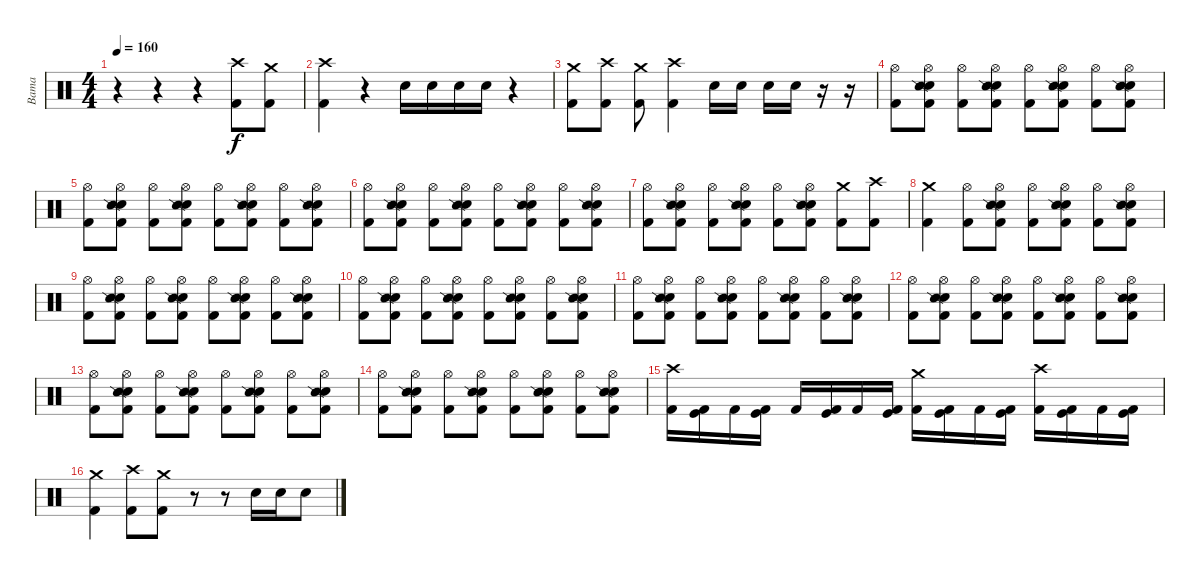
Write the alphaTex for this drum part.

\track ("Bama" "Bama") {instrument percussion}
\staff {score}
\articulation defaults
\ts (4 4)
\tempo 160
\clef neutral
\ks c
r.4{dy f} r.4 r.4 ("Crash high (hit)" "Kick (hit) 2").8 ("Crash medium (hit)" "Kick (hit) 2").8 |
("Crash high (hit)" "Kick (hit) 2").4 r.4 "Electric Snare (hit)".16 "Electric Snare (hit)".16 "Electric Snare (hit)".16 "Electric Snare (hit)".16 r.4 |
("Crash medium (hit)" "Kick (hit) 2").8 ("Crash high (hit)" "Kick (hit) 2").8 ("Crash medium (hit)" "Kick (hit) 2").8 ("Crash high (hit)" "Kick (hit) 2").4 "Electric Snare (hit)".16 "Electric Snare (hit)".16 "Electric Snare (hit)".16 "Electric Snare (hit)".16 r.16 r.16 |
("Hi-Hat (open)" "Kick (hit) 2").8 ("Hi-Hat (open)" "Electric Snare (hit)" "Snare (side stick) 2" "Kick (hit) 2").8 ("Hi-Hat (open)" "Kick (hit) 2").8 ("Hi-Hat (open)" "Electric Snare (hit)" "Snare (side stick) 2" "Kick (hit) 2").8 ("Hi-Hat (open)" "Kick (hit) 2").8 ("Hi-Hat (open)" "Electric Snare (hit)" "Snare (side stick) 2" "Kick (hit) 2").8 ("Hi-Hat (open)" "Kick (hit) 2").8 ("Hi-Hat (open)" "Electric Snare (hit)" "Snare (side stick) 2" "Kick (hit) 2").8 |
("Hi-Hat (open)" "Kick (hit) 2").8 ("Hi-Hat (open)" "Electric Snare (hit)" "Snare (side stick) 2" "Kick (hit) 2").8 ("Hi-Hat (open)" "Kick (hit) 2").8 ("Hi-Hat (open)" "Electric Snare (hit)" "Snare (side stick) 2" "Kick (hit) 2").8 ("Hi-Hat (open)" "Kick (hit) 2").8 ("Hi-Hat (open)" "Electric Snare (hit)" "Snare (side stick) 2" "Kick (hit) 2").8 ("Hi-Hat (open)" "Kick (hit) 2").8 ("Hi-Hat (open)" "Electric Snare (hit)" "Snare (side stick) 2" "Kick (hit) 2").8 |
("Hi-Hat (open)" "Kick (hit) 2").8 ("Hi-Hat (open)" "Electric Snare (hit)" "Snare (side stick) 2" "Kick (hit) 2").8 ("Hi-Hat (open)" "Kick (hit) 2").8 ("Hi-Hat (open)" "Electric Snare (hit)" "Snare (side stick) 2" "Kick (hit) 2").8 ("Hi-Hat (open)" "Kick (hit) 2").8 ("Hi-Hat (open)" "Electric Snare (hit)" "Snare (side stick) 2" "Kick (hit) 2").8 ("Hi-Hat (open)" "Kick (hit) 2").8 ("Hi-Hat (open)" "Electric Snare (hit)" "Snare (side stick) 2" "Kick (hit) 2").8 |
("Hi-Hat (open)" "Kick (hit) 2").8 ("Hi-Hat (open)" "Electric Snare (hit)" "Snare (side stick) 2" "Kick (hit) 2").8 ("Hi-Hat (open)" "Kick (hit) 2").8 ("Hi-Hat (open)" "Electric Snare (hit)" "Snare (side stick) 2" "Kick (hit) 2").8 ("Hi-Hat (open)" "Kick (hit) 2").8 ("Hi-Hat (open)" "Electric Snare (hit)" "Snare (side stick) 2" "Kick (hit) 2").8 ("Crash medium (hit)" "Kick (hit) 2").8 ("Crash high (hit)" "Kick (hit) 2").8 |
("Crash medium (hit)" "Kick (hit) 2").4 ("Hi-Hat (open)" "Kick (hit) 2").8 ("Hi-Hat (open)" "Electric Snare (hit)" "Snare (side stick) 2" "Kick (hit) 2").8 ("Hi-Hat (open)" "Kick (hit) 2").8 ("Hi-Hat (open)" "Electric Snare (hit)" "Snare (side stick) 2" "Kick (hit) 2").8 ("Hi-Hat (open)" "Kick (hit) 2").8 ("Hi-Hat (open)" "Electric Snare (hit)" "Snare (side stick) 2" "Kick (hit) 2").8 |
("Hi-Hat (open)" "Kick (hit) 2").8 ("Hi-Hat (open)" "Electric Snare (hit)" "Snare (side stick) 2" "Kick (hit) 2").8 ("Hi-Hat (open)" "Kick (hit) 2").8 ("Hi-Hat (open)" "Electric Snare (hit)" "Snare (side stick) 2" "Kick (hit) 2").8 ("Hi-Hat (open)" "Kick (hit) 2").8 ("Hi-Hat (open)" "Electric Snare (hit)" "Snare (side stick) 2" "Kick (hit) 2").8 ("Hi-Hat (open)" "Kick (hit) 2").8 ("Hi-Hat (open)" "Electric Snare (hit)" "Snare (side stick) 2" "Kick (hit) 2").8 |
("Hi-Hat (open)" "Kick (hit) 2").8 ("Hi-Hat (open)" "Electric Snare (hit)" "Snare (side stick) 2" "Kick (hit) 2").8 ("Hi-Hat (open)" "Kick (hit) 2").8 ("Hi-Hat (open)" "Electric Snare (hit)" "Snare (side stick) 2" "Kick (hit) 2").8 ("Hi-Hat (open)" "Kick (hit) 2").8 ("Hi-Hat (open)" "Electric Snare (hit)" "Snare (side stick) 2" "Kick (hit) 2").8 ("Hi-Hat (open)" "Kick (hit) 2").8 ("Hi-Hat (open)" "Electric Snare (hit)" "Snare (side stick) 2" "Kick (hit) 2").8 |
("Hi-Hat (open)" "Kick (hit) 2").8 ("Hi-Hat (open)" "Electric Snare (hit)" "Snare (side stick) 2" "Kick (hit) 2").8 ("Hi-Hat (open)" "Kick (hit) 2").8 ("Hi-Hat (open)" "Electric Snare (hit)" "Snare (side stick) 2" "Kick (hit) 2").8 ("Hi-Hat (open)" "Kick (hit) 2").8 ("Hi-Hat (open)" "Electric Snare (hit)" "Snare (side stick) 2" "Kick (hit) 2").8 ("Hi-Hat (open)" "Kick (hit) 2").8 ("Hi-Hat (open)" "Electric Snare (hit)" "Snare (side stick) 2" "Kick (hit) 2").8 |
("Hi-Hat (open)" "Kick (hit) 2").8 ("Hi-Hat (open)" "Electric Snare (hit)" "Snare (side stick) 2" "Kick (hit) 2").8 ("Hi-Hat (open)" "Kick (hit) 2").8 ("Hi-Hat (open)" "Electric Snare (hit)" "Snare (side stick) 2" "Kick (hit) 2").8 ("Hi-Hat (open)" "Kick (hit) 2").8 ("Hi-Hat (open)" "Electric Snare (hit)" "Snare (side stick) 2" "Kick (hit) 2").8 ("Hi-Hat (open)" "Kick (hit) 2").8 ("Hi-Hat (open)" "Electric Snare (hit)" "Snare (side stick) 2" "Kick (hit) 2").8 |
("Hi-Hat (open)" "Kick (hit) 2").8 ("Hi-Hat (open)" "Electric Snare (hit)" "Snare (side stick) 2" "Kick (hit) 2").8 ("Hi-Hat (open)" "Kick (hit) 2").8 ("Hi-Hat (open)" "Electric Snare (hit)" "Snare (side stick) 2" "Kick (hit) 2").8 ("Hi-Hat (open)" "Kick (hit) 2").8 ("Hi-Hat (open)" "Electric Snare (hit)" "Snare (side stick) 2" "Kick (hit) 2").8 ("Hi-Hat (open)" "Kick (hit) 2").8 ("Hi-Hat (open)" "Electric Snare (hit)" "Snare (side stick) 2" "Kick (hit) 2").8 |
("Hi-Hat (open)" "Kick (hit) 2").8 ("Hi-Hat (open)" "Electric Snare (hit)" "Snare (side stick) 2" "Kick (hit) 2").8 ("Hi-Hat (open)" "Kick (hit) 2").8 ("Hi-Hat (open)" "Electric Snare (hit)" "Snare (side stick) 2" "Kick (hit) 2").8 ("Hi-Hat (open)" "Kick (hit) 2").8 ("Hi-Hat (open)" "Electric Snare (hit)" "Snare (side stick) 2" "Kick (hit) 2").8 ("Hi-Hat (open)" "Kick (hit) 2").8 ("Hi-Hat (open)" "Electric Snare (hit)" "Snare (side stick) 2" "Kick (hit) 2").8 |
("Crash high (hit)" "Kick (hit) 2").16 ("Kick (hit)" "Kick (hit) 2").16 "Kick (hit) 2".16 ("Kick (hit)" "Kick (hit) 2").16 "Kick (hit) 2".16 ("Kick (hit)" "Kick (hit) 2").16 "Kick (hit) 2".16 ("Kick (hit)" "Kick (hit) 2").16 ("Crash medium (hit)" "Kick (hit) 2").16 ("Kick (hit)" "Kick (hit) 2").16 "Kick (hit) 2".16 ("Kick (hit)" "Kick (hit) 2").16 ("Crash high (hit)" "Kick (hit) 2").16 ("Kick (hit)" "Kick (hit) 2").16 "Kick (hit) 2".16 ("Kick (hit)" "Kick (hit) 2").16 |
("Crash medium (hit)" "Kick (hit) 2").4 ("Crash high (hit)" "Kick (hit) 2").8 ("Crash medium (hit)" "Kick (hit) 2").8 r.8 r.8 "Electric Snare (hit)".16 "Electric Snare (hit)".16 "Electric Snare (hit)".8
